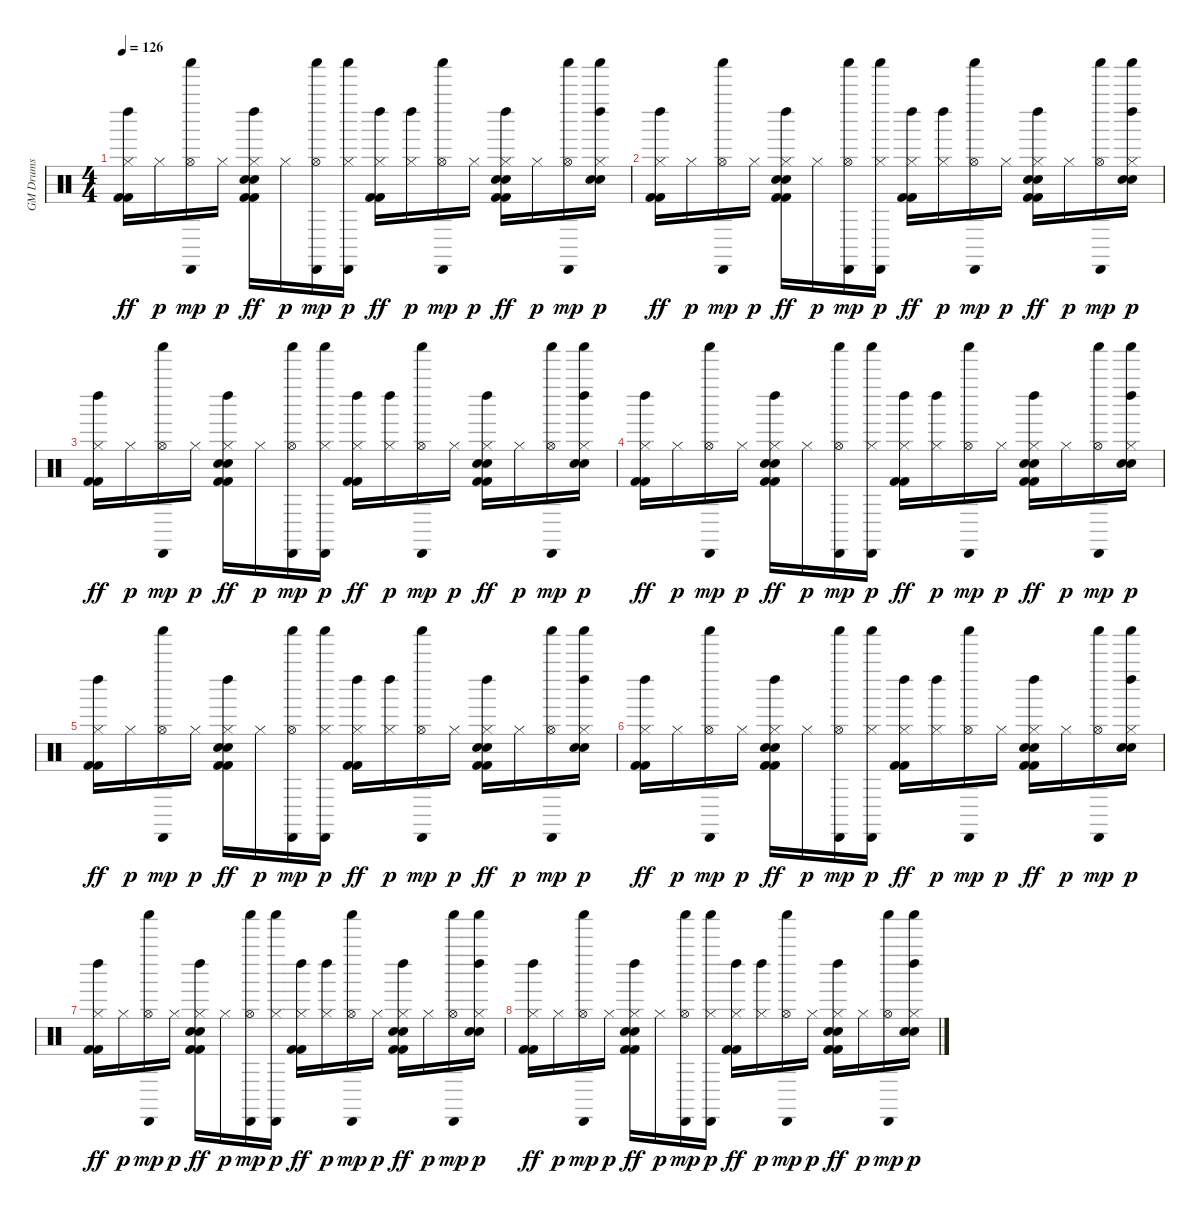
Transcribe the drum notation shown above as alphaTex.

\track ("GM Drums" "GM Drums") {instrument percussion}
\staff {score}
\articulation defaults
\ts (4 4)
\tempo 126
\clef neutral
\ks c
("Kick (hit) 2" "Kick (hit) 2" "Hi-Hat (closed)" "Left Maraca (hit)").16{dy ff} "Hi-Hat (closed)".16{dy p} ("Hi-Hat (open)" "Cabasa (hit)" "Shaker (hit)").16{dy mp} "Hi-Hat (closed)".16{dy p} ("Kick (hit) 2" "Kick (hit) 2" "Hand Clap (hit)" "Electric Snare (hit)" "Hi-Hat (closed)" "Left Maraca (hit)").16{dy ff} "Hi-Hat (closed)".16{dy p} ("Hi-Hat (open)" "Cabasa (hit)" "Shaker (hit)").16{dy mp} ("Hi-Hat (closed)" "Cabasa (hit)" "Shaker (hit)").16{dy p} ("Kick (hit) 2" "Kick (hit) 2" "Hi-Hat (closed)" "Left Maraca (hit)").16{dy ff} ("Hi-Hat (closed)" "Left Maraca (hit)").16{dy p} ("Hi-Hat (open)" "Cabasa (hit)" "Shaker (hit)").16{dy mp} "Hi-Hat (closed)".16{dy p} ("Kick (hit) 2" "Kick (hit) 2" "Hand Clap (hit)" "Electric Snare (hit)" "Hi-Hat (closed)" "Left Maraca (hit)").16{dy ff} "Hi-Hat (closed)".16{dy p} ("Hi-Hat (open)" "Cabasa (hit)" "Shaker (hit)").16{dy mp} ("Hand Clap (hit)" "Electric Snare (hit)" "Hi-Hat (closed)" "Left Maraca (hit)" "Shaker (hit)").16{dy p} |
("Kick (hit) 2" "Kick (hit) 2" "Hi-Hat (closed)" "Left Maraca (hit)").16{dy ff} "Hi-Hat (closed)".16{dy p} ("Hi-Hat (open)" "Cabasa (hit)" "Shaker (hit)").16{dy mp} "Hi-Hat (closed)".16{dy p} ("Kick (hit) 2" "Kick (hit) 2" "Hand Clap (hit)" "Electric Snare (hit)" "Hi-Hat (closed)" "Left Maraca (hit)").16{dy ff} "Hi-Hat (closed)".16{dy p} ("Hi-Hat (open)" "Cabasa (hit)" "Shaker (hit)").16{dy mp} ("Hi-Hat (closed)" "Cabasa (hit)" "Shaker (hit)").16{dy p} ("Kick (hit) 2" "Kick (hit) 2" "Hi-Hat (closed)" "Left Maraca (hit)").16{dy ff} ("Hi-Hat (closed)" "Left Maraca (hit)").16{dy p} ("Hi-Hat (open)" "Cabasa (hit)" "Shaker (hit)").16{dy mp} "Hi-Hat (closed)".16{dy p} ("Kick (hit) 2" "Kick (hit) 2" "Hand Clap (hit)" "Electric Snare (hit)" "Hi-Hat (closed)" "Left Maraca (hit)").16{dy ff} "Hi-Hat (closed)".16{dy p} ("Hi-Hat (open)" "Cabasa (hit)" "Shaker (hit)").16{dy mp} ("Hand Clap (hit)" "Electric Snare (hit)" "Hi-Hat (closed)" "Left Maraca (hit)" "Shaker (hit)").16{dy p} |
("Kick (hit) 2" "Kick (hit) 2" "Hi-Hat (closed)" "Left Maraca (hit)").16{dy ff} "Hi-Hat (closed)".16{dy p} ("Hi-Hat (open)" "Cabasa (hit)" "Shaker (hit)").16{dy mp} "Hi-Hat (closed)".16{dy p} ("Kick (hit) 2" "Kick (hit) 2" "Hand Clap (hit)" "Electric Snare (hit)" "Hi-Hat (closed)" "Left Maraca (hit)").16{dy ff} "Hi-Hat (closed)".16{dy p} ("Hi-Hat (open)" "Cabasa (hit)" "Shaker (hit)").16{dy mp} ("Hi-Hat (closed)" "Cabasa (hit)" "Shaker (hit)").16{dy p} ("Kick (hit) 2" "Kick (hit) 2" "Hi-Hat (closed)" "Left Maraca (hit)").16{dy ff} ("Hi-Hat (closed)" "Left Maraca (hit)").16{dy p} ("Hi-Hat (open)" "Cabasa (hit)" "Shaker (hit)").16{dy mp} "Hi-Hat (closed)".16{dy p} ("Kick (hit) 2" "Kick (hit) 2" "Hand Clap (hit)" "Electric Snare (hit)" "Hi-Hat (closed)" "Left Maraca (hit)").16{dy ff} "Hi-Hat (closed)".16{dy p} ("Hi-Hat (open)" "Cabasa (hit)" "Shaker (hit)").16{dy mp} ("Hand Clap (hit)" "Electric Snare (hit)" "Hi-Hat (closed)" "Left Maraca (hit)" "Shaker (hit)").16{dy p} |
("Kick (hit) 2" "Kick (hit) 2" "Hi-Hat (closed)" "Left Maraca (hit)").16{dy ff} "Hi-Hat (closed)".16{dy p} ("Hi-Hat (open)" "Cabasa (hit)" "Shaker (hit)").16{dy mp} "Hi-Hat (closed)".16{dy p} ("Kick (hit) 2" "Kick (hit) 2" "Hand Clap (hit)" "Electric Snare (hit)" "Hi-Hat (closed)" "Left Maraca (hit)").16{dy ff} "Hi-Hat (closed)".16{dy p} ("Hi-Hat (open)" "Cabasa (hit)" "Shaker (hit)").16{dy mp} ("Hi-Hat (closed)" "Cabasa (hit)" "Shaker (hit)").16{dy p} ("Kick (hit) 2" "Kick (hit) 2" "Hi-Hat (closed)" "Left Maraca (hit)").16{dy ff} ("Hi-Hat (closed)" "Left Maraca (hit)").16{dy p} ("Hi-Hat (open)" "Cabasa (hit)" "Shaker (hit)").16{dy mp} "Hi-Hat (closed)".16{dy p} ("Kick (hit) 2" "Kick (hit) 2" "Hand Clap (hit)" "Electric Snare (hit)" "Hi-Hat (closed)" "Left Maraca (hit)").16{dy ff} "Hi-Hat (closed)".16{dy p} ("Hi-Hat (open)" "Cabasa (hit)" "Shaker (hit)").16{dy mp} ("Hand Clap (hit)" "Electric Snare (hit)" "Hi-Hat (closed)" "Left Maraca (hit)" "Shaker (hit)").16{dy p} |
("Kick (hit) 2" "Kick (hit) 2" "Hi-Hat (closed)" "Left Maraca (hit)").16{dy ff} "Hi-Hat (closed)".16{dy p} ("Hi-Hat (open)" "Cabasa (hit)" "Shaker (hit)").16{dy mp} "Hi-Hat (closed)".16{dy p} ("Kick (hit) 2" "Kick (hit) 2" "Hand Clap (hit)" "Electric Snare (hit)" "Hi-Hat (closed)" "Left Maraca (hit)").16{dy ff} "Hi-Hat (closed)".16{dy p} ("Hi-Hat (open)" "Cabasa (hit)" "Shaker (hit)").16{dy mp} ("Hi-Hat (closed)" "Cabasa (hit)" "Shaker (hit)").16{dy p} ("Kick (hit) 2" "Kick (hit) 2" "Hi-Hat (closed)" "Left Maraca (hit)").16{dy ff} ("Hi-Hat (closed)" "Left Maraca (hit)").16{dy p} ("Hi-Hat (open)" "Cabasa (hit)" "Shaker (hit)").16{dy mp} "Hi-Hat (closed)".16{dy p} ("Kick (hit) 2" "Kick (hit) 2" "Hand Clap (hit)" "Electric Snare (hit)" "Hi-Hat (closed)" "Left Maraca (hit)").16{dy ff} "Hi-Hat (closed)".16{dy p} ("Hi-Hat (open)" "Cabasa (hit)" "Shaker (hit)").16{dy mp} ("Hand Clap (hit)" "Electric Snare (hit)" "Hi-Hat (closed)" "Left Maraca (hit)" "Shaker (hit)").16{dy p} |
("Kick (hit) 2" "Kick (hit) 2" "Hi-Hat (closed)" "Left Maraca (hit)").16{dy ff} "Hi-Hat (closed)".16{dy p} ("Hi-Hat (open)" "Cabasa (hit)" "Shaker (hit)").16{dy mp} "Hi-Hat (closed)".16{dy p} ("Kick (hit) 2" "Kick (hit) 2" "Hand Clap (hit)" "Electric Snare (hit)" "Hi-Hat (closed)" "Left Maraca (hit)").16{dy ff} "Hi-Hat (closed)".16{dy p} ("Hi-Hat (open)" "Cabasa (hit)" "Shaker (hit)").16{dy mp} ("Hi-Hat (closed)" "Cabasa (hit)" "Shaker (hit)").16{dy p} ("Kick (hit) 2" "Kick (hit) 2" "Hi-Hat (closed)" "Left Maraca (hit)").16{dy ff} ("Hi-Hat (closed)" "Left Maraca (hit)").16{dy p} ("Hi-Hat (open)" "Cabasa (hit)" "Shaker (hit)").16{dy mp} "Hi-Hat (closed)".16{dy p} ("Kick (hit) 2" "Kick (hit) 2" "Hand Clap (hit)" "Electric Snare (hit)" "Hi-Hat (closed)" "Left Maraca (hit)").16{dy ff} "Hi-Hat (closed)".16{dy p} ("Hi-Hat (open)" "Cabasa (hit)" "Shaker (hit)").16{dy mp} ("Hand Clap (hit)" "Electric Snare (hit)" "Hi-Hat (closed)" "Left Maraca (hit)" "Shaker (hit)").16{dy p} |
("Kick (hit) 2" "Kick (hit) 2" "Hi-Hat (closed)" "Left Maraca (hit)").16{dy ff} "Hi-Hat (closed)".16{dy p} ("Hi-Hat (open)" "Cabasa (hit)" "Shaker (hit)").16{dy mp} "Hi-Hat (closed)".16{dy p} ("Kick (hit) 2" "Kick (hit) 2" "Hand Clap (hit)" "Electric Snare (hit)" "Hi-Hat (closed)" "Left Maraca (hit)").16{dy ff} "Hi-Hat (closed)".16{dy p} ("Hi-Hat (open)" "Cabasa (hit)" "Shaker (hit)").16{dy mp} ("Hi-Hat (closed)" "Cabasa (hit)" "Shaker (hit)").16{dy p} ("Kick (hit) 2" "Kick (hit) 2" "Hi-Hat (closed)" "Left Maraca (hit)").16{dy ff} ("Hi-Hat (closed)" "Left Maraca (hit)").16{dy p} ("Hi-Hat (open)" "Cabasa (hit)" "Shaker (hit)").16{dy mp} "Hi-Hat (closed)".16{dy p} ("Kick (hit) 2" "Kick (hit) 2" "Hand Clap (hit)" "Electric Snare (hit)" "Hi-Hat (closed)" "Left Maraca (hit)").16{dy ff} "Hi-Hat (closed)".16{dy p} ("Hi-Hat (open)" "Cabasa (hit)" "Shaker (hit)").16{dy mp} ("Hand Clap (hit)" "Electric Snare (hit)" "Hi-Hat (closed)" "Left Maraca (hit)" "Shaker (hit)").16{dy p} |
("Kick (hit) 2" "Kick (hit) 2" "Hi-Hat (closed)" "Left Maraca (hit)").16{dy ff} "Hi-Hat (closed)".16{dy p} ("Hi-Hat (open)" "Cabasa (hit)" "Shaker (hit)").16{dy mp} "Hi-Hat (closed)".16{dy p} ("Kick (hit) 2" "Kick (hit) 2" "Hand Clap (hit)" "Electric Snare (hit)" "Hi-Hat (closed)" "Left Maraca (hit)").16{dy ff} "Hi-Hat (closed)".16{dy p} ("Hi-Hat (open)" "Cabasa (hit)" "Shaker (hit)").16{dy mp} ("Hi-Hat (closed)" "Cabasa (hit)" "Shaker (hit)").16{dy p} ("Kick (hit) 2" "Kick (hit) 2" "Hi-Hat (closed)" "Left Maraca (hit)").16{dy ff} ("Hi-Hat (closed)" "Left Maraca (hit)").16{dy p} ("Hi-Hat (open)" "Cabasa (hit)" "Shaker (hit)").16{dy mp} "Hi-Hat (closed)".16{dy p} ("Kick (hit) 2" "Kick (hit) 2" "Hand Clap (hit)" "Electric Snare (hit)" "Hi-Hat (closed)" "Left Maraca (hit)").16{dy ff} "Hi-Hat (closed)".16{dy p} ("Hi-Hat (open)" "Cabasa (hit)" "Shaker (hit)").16{dy mp} ("Hand Clap (hit)" "Electric Snare (hit)" "Hi-Hat (closed)" "Left Maraca (hit)" "Shaker (hit)").16{dy p}
